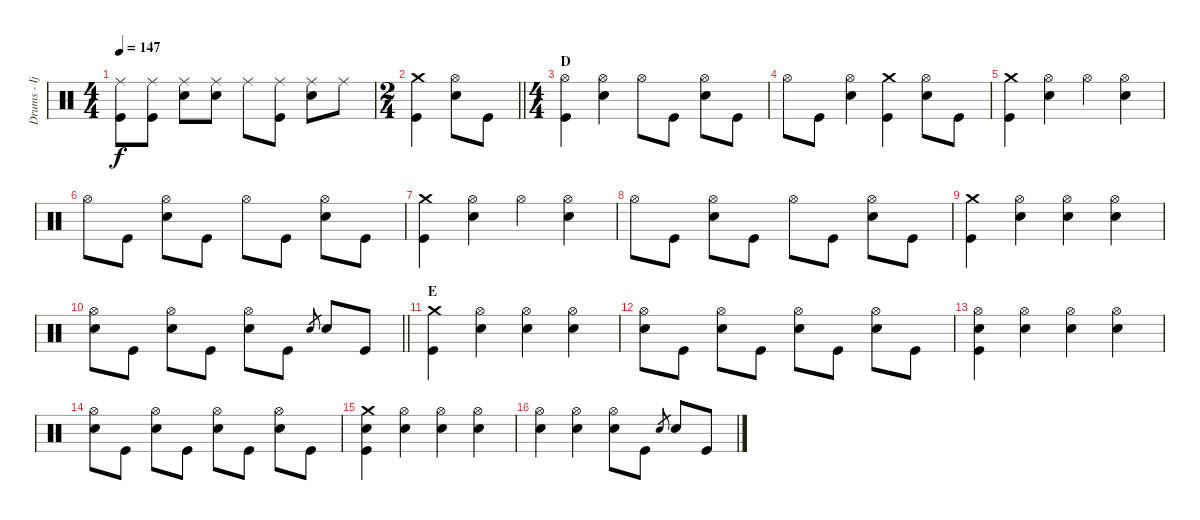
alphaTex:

\track ("Drums - Ijichi" "Drums - Ij") {instrument percussion}
\staff {score}
\articulation defaults
\ts (4 4)
\tempo 147
\clef neutral
\ks c
("Ride (middle)" "Kick (hit)").8{dy f} ("Ride (middle)" "Kick (hit)").8 ("Ride (middle)" "Electric Snare (hit)").8 ("Ride (middle)" "Electric Snare (hit)").8 "Ride (middle)".8 ("Ride (middle)" "Kick (hit)").8 ("Ride (middle)" "Electric Snare (hit)").8 "Ride (middle)".8 |
\ts (2 4)
\barLineRight lightlight
("Crash medium (hit)" "Kick (hit)").4 ("Hi-Hat (open)" "Electric Snare (hit)").8 "Kick (hit)".8 |
\ts (4 4)
\section ("" "D")
("Hi-Hat (open)" "Kick (hit)").4 ("Hi-Hat (open)" "Electric Snare (hit)").4 "Hi-Hat (open)".8 "Kick (hit)".8 ("Hi-Hat (open)" "Electric Snare (hit)").8 "Kick (hit)".8 |
"Hi-Hat (open)".8 "Kick (hit)".8 ("Hi-Hat (open)" "Electric Snare (hit)").4 ("Crash medium (hit)" "Kick (hit)").4 ("Hi-Hat (open)" "Electric Snare (hit)").8 "Kick (hit)".8 |
("Crash medium (hit)" "Kick (hit)").4 ("Hi-Hat (open)" "Electric Snare (hit)").4 "Hi-Hat (open)".4 ("Hi-Hat (open)" "Electric Snare (hit)").4 |
"Hi-Hat (open)".8 "Kick (hit)".8 ("Hi-Hat (open)" "Electric Snare (hit)").8 "Kick (hit)".8 "Hi-Hat (open)".8 "Kick (hit)".8 ("Hi-Hat (open)" "Electric Snare (hit)").8 "Kick (hit)".8 |
("Crash medium (hit)" "Kick (hit)").4 ("Hi-Hat (open)" "Electric Snare (hit)").4 "Hi-Hat (open)".4 ("Hi-Hat (open)" "Electric Snare (hit)").4 |
"Hi-Hat (open)".8 "Kick (hit)".8 ("Hi-Hat (open)" "Electric Snare (hit)").8 "Kick (hit)".8 "Hi-Hat (open)".8 "Kick (hit)".8 ("Hi-Hat (open)" "Electric Snare (hit)").8 "Kick (hit)".8 |
("Crash medium (hit)" "Kick (hit)").4 ("Hi-Hat (open)" "Electric Snare (hit)").4 ("Hi-Hat (open)" "Electric Snare (hit)").4 ("Hi-Hat (open)" "Electric Snare (hit)").4 |
\barLineRight lightlight
("Hi-Hat (open)" "Electric Snare (hit)").8 "Kick (hit)".8 ("Hi-Hat (open)" "Electric Snare (hit)").8 "Kick (hit)".8 ("Hi-Hat (open)" "Electric Snare (hit)").8 "Kick (hit)".8 "Electric Snare (hit)".8{gr} "Electric Snare (hit)".8 "Kick (hit)".8 |
\section ("" "E")
("Crash medium (hit)" "Kick (hit)").4 ("Hi-Hat (open)" "Electric Snare (hit)").4 ("Hi-Hat (open)" "Electric Snare (hit)").4 ("Hi-Hat (open)" "Electric Snare (hit)").4 |
("Hi-Hat (open)" "Electric Snare (hit)").8 "Kick (hit)".8 ("Hi-Hat (open)" "Electric Snare (hit)").8 "Kick (hit)".8 ("Hi-Hat (open)" "Electric Snare (hit)").8 "Kick (hit)".8 ("Hi-Hat (open)" "Electric Snare (hit)").8 "Kick (hit)".8 |
("Hi-Hat (open)" "Electric Snare (hit)" "Kick (hit)").4 ("Hi-Hat (open)" "Electric Snare (hit)").4 ("Hi-Hat (open)" "Electric Snare (hit)").4 ("Hi-Hat (open)" "Electric Snare (hit)").4 |
("Hi-Hat (open)" "Electric Snare (hit)").8 "Kick (hit)".8 ("Hi-Hat (open)" "Electric Snare (hit)").8 "Kick (hit)".8 ("Hi-Hat (open)" "Electric Snare (hit)").8 "Kick (hit)".8 ("Hi-Hat (open)" "Electric Snare (hit)").8 "Kick (hit)".8 |
("Crash medium (hit)" "Electric Snare (hit)" "Kick (hit)").4 ("Hi-Hat (open)" "Electric Snare (hit)").4 ("Hi-Hat (open)" "Electric Snare (hit)").4 ("Hi-Hat (open)" "Electric Snare (hit)").4 |
("Hi-Hat (open)" "Electric Snare (hit)").4 ("Hi-Hat (open)" "Electric Snare (hit)").4 ("Hi-Hat (open)" "Electric Snare (hit)").8 "Kick (hit)".8 "Electric Snare (hit)".8{gr} "Electric Snare (hit)".8 "Kick (hit)".8
